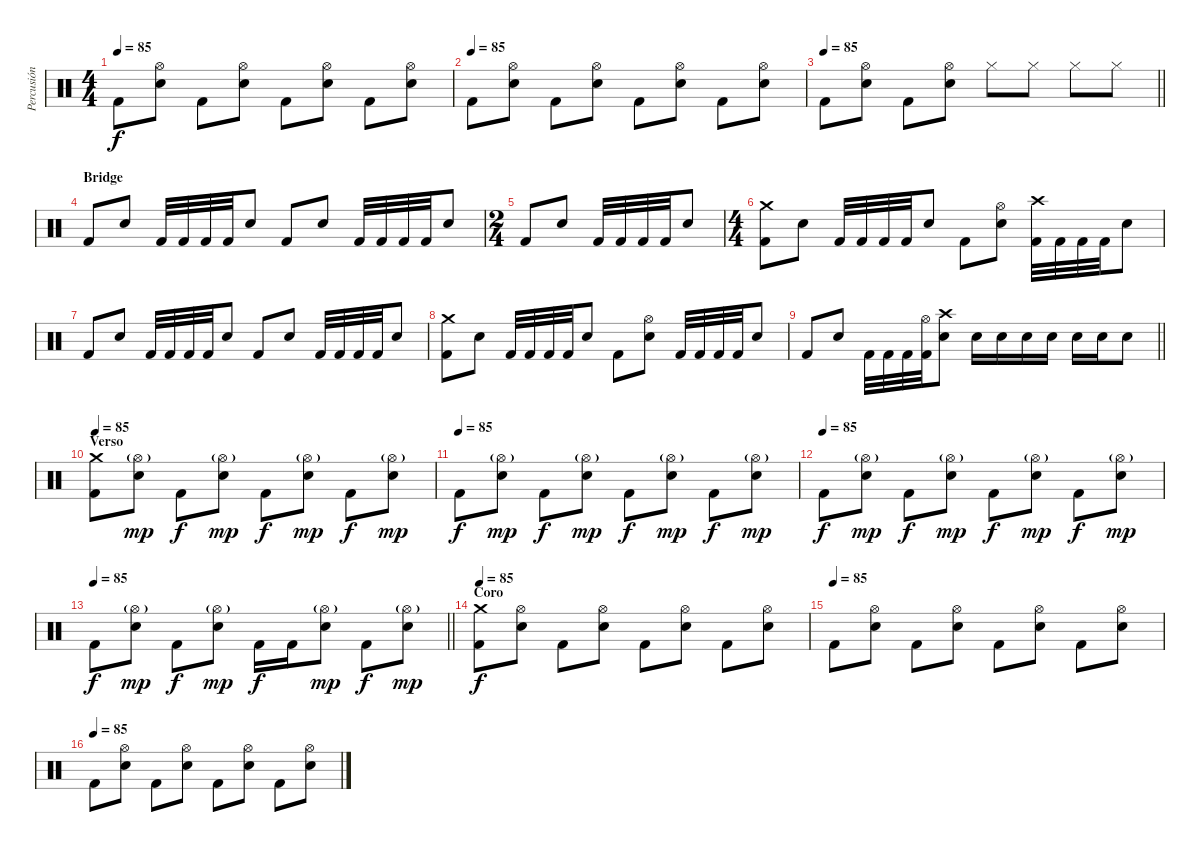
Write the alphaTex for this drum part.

\track ("Percusión" "Percusión") {instrument percussion}
\staff {score}
\articulation defaults
\ts (4 4)
\tempo 85
\clef neutral
\ks c "Kick (hit) 2".8{dy f}
("Hi-Hat (open)" "Electric Snare (hit)").8 "Kick (hit) 2".8 ("Hi-Hat (open)" "Electric Snare (hit)").8 "Kick (hit) 2".8 ("Hi-Hat (open)" "Electric Snare (hit)").8 "Kick (hit) 2".8 ("Hi-Hat (open)" "Electric Snare (hit)").8 |
\tempo (85)
"Kick (hit) 2".8 ("Hi-Hat (open)" "Electric Snare (hit)").8 "Kick (hit) 2".8 ("Hi-Hat (open)" "Electric Snare (hit)").8 "Kick (hit) 2".8 ("Hi-Hat (open)" "Electric Snare (hit)").8 "Kick (hit) 2".8 ("Hi-Hat (open)" "Electric Snare (hit)").8 |
\tempo 85
\barLineRight lightlight "Kick (hit) 2".8
("Hi-Hat (open)" "Electric Snare (hit)").8 "Kick (hit) 2".8 ("Hi-Hat (open)" "Electric Snare (hit)").8 "Hi-Hat (closed)".8 "Hi-Hat (closed)".8 "Hi-Hat (closed)".8 "Hi-Hat (closed)".8 |
\section ("" "Bridge")
"Kick (hit) 2".8 "Electric Snare (hit)".8 "Kick (hit) 2".32 "Kick (hit) 2".32 "Kick (hit) 2".32 "Kick (hit) 2".32 "Electric Snare (hit)".8 "Kick (hit) 2".8 "Electric Snare (hit)".8 "Kick (hit) 2".32 "Kick (hit) 2".32 "Kick (hit) 2".32 "Kick (hit) 2".32 "Electric Snare (hit)".8 |
\ts (2 4)
"Kick (hit) 2".8 "Electric Snare (hit)".8 "Kick (hit) 2".32 "Kick (hit) 2".32 "Kick (hit) 2".32 "Kick (hit) 2".32 "Electric Snare (hit)".8 |
\ts (4 4)
("Crash medium (hit)" "Kick (hit) 2").8 "Electric Snare (hit)".8 "Kick (hit) 2".32 "Kick (hit) 2".32 "Kick (hit) 2".32 "Kick (hit) 2".32 "Electric Snare (hit)".8 "Kick (hit) 2".8 ("Hi-Hat (open)" "Electric Snare (hit)").8 ("Crash high (hit)" "Kick (hit) 2").32 "Kick (hit) 2".32 "Kick (hit) 2".32 "Kick (hit) 2".32 "Electric Snare (hit)".8 |
"Kick (hit) 2".8 "Electric Snare (hit)".8 "Kick (hit) 2".32 "Kick (hit) 2".32 "Kick (hit) 2".32 "Kick (hit) 2".32 "Electric Snare (hit)".8 "Kick (hit) 2".8 "Electric Snare (hit)".8 "Kick (hit) 2".32 "Kick (hit) 2".32 "Kick (hit) 2".32 "Kick (hit) 2".32 "Electric Snare (hit)".8 |
("Crash medium (hit)" "Kick (hit) 2").8 "Electric Snare (hit)".8 "Kick (hit) 2".32 "Kick (hit) 2".32 "Kick (hit) 2".32 "Kick (hit) 2".32 "Electric Snare (hit)".8 "Kick (hit) 2".8 ("Hi-Hat (open)" "Electric Snare (hit)").8 "Kick (hit) 2".32 "Kick (hit) 2".32 "Kick (hit) 2".32 "Kick (hit) 2".32 "Electric Snare (hit)".8 |
\barLineRight lightlight "Kick (hit) 2".8 "Electric Snare (hit)".8 "Kick (hit) 2".32 "Kick (hit) 2".32 "Kick (hit) 2".32
("Hi-Hat (open)" "Kick (hit) 2").32 ("Crash high (hit)" "Electric Snare (hit)").8 "Electric Snare (hit)".16 "Electric Snare (hit)".16 "Electric Snare (hit)".16 "Electric Snare (hit)".16 "Electric Snare (hit)".16 "Electric Snare (hit)".16 "Electric Snare (hit)".8 |
\section ("" "Verso")
\tempo 85
("Crash medium (hit)" "Kick (hit) 2").8 ("Hi-Hat (open)"{g} "Electric Snare (hit)").8{dy mp} "Kick (hit) 2".8{dy f} ("Hi-Hat (open)"{g} "Electric Snare (hit)").8{dy mp} "Kick (hit) 2".8{dy f} ("Hi-Hat (open)"{g} "Electric Snare (hit)").8{dy mp} "Kick (hit) 2".8{dy f} ("Hi-Hat (open)"{g} "Electric Snare (hit)").8{dy mp} |
\tempo (85)
"Kick (hit) 2".8{dy f} ("Hi-Hat (open)"{g} "Electric Snare (hit)").8{dy mp} "Kick (hit) 2".8{dy f} ("Hi-Hat (open)"{g} "Electric Snare (hit)").8{dy mp} "Kick (hit) 2".8{dy f} ("Hi-Hat (open)"{g} "Electric Snare (hit)").8{dy mp} "Kick (hit) 2".8{dy f} ("Hi-Hat (open)"{g} "Electric Snare (hit)").8{dy mp} |
\tempo (85)
"Kick (hit) 2".8{dy f} ("Hi-Hat (open)"{g} "Electric Snare (hit)").8{dy mp} "Kick (hit) 2".8{dy f} ("Hi-Hat (open)"{g} "Electric Snare (hit)").8{dy mp} "Kick (hit) 2".8{dy f} ("Hi-Hat (open)"{g} "Electric Snare (hit)").8{dy mp} "Kick (hit) 2".8{dy f} ("Hi-Hat (open)"{g} "Electric Snare (hit)").8{dy mp} |
\tempo 90
\tempo 85
\barLineRight lightlight "Kick (hit) 2".8{dy f}
("Hi-Hat (open)"{g} "Electric Snare (hit)").8{dy mp} "Kick (hit) 2".8{dy f} ("Hi-Hat (open)"{g} "Electric Snare (hit)").8{dy mp} "Kick (hit) 2".16{dy f} "Kick (hit) 2".16 ("Hi-Hat (open)"{g} "Electric Snare (hit)").8{dy mp} "Kick (hit) 2".8{dy f} ("Hi-Hat (open)"{g} "Electric Snare (hit)").8{dy mp} |
\section ("" "Coro")
\tempo 85
("Crash medium (hit)" "Kick (hit) 2").8{dy f} ("Hi-Hat (open)" "Electric Snare (hit)").8 "Kick (hit) 2".8 ("Hi-Hat (open)" "Electric Snare (hit)").8 "Kick (hit) 2".8 ("Hi-Hat (open)" "Electric Snare (hit)").8 "Kick (hit) 2".8 ("Hi-Hat (open)" "Electric Snare (hit)").8 |
\tempo (85)
"Kick (hit) 2".8 ("Hi-Hat (open)" "Electric Snare (hit)").8 "Kick (hit) 2".8 ("Hi-Hat (open)" "Electric Snare (hit)").8 "Kick (hit) 2".8 ("Hi-Hat (open)" "Electric Snare (hit)").8 "Kick (hit) 2".8 ("Hi-Hat (open)" "Electric Snare (hit)").8 |
\tempo (85)
"Kick (hit) 2".8 ("Hi-Hat (open)" "Electric Snare (hit)").8 "Kick (hit) 2".8 ("Hi-Hat (open)" "Electric Snare (hit)").8 "Kick (hit) 2".8 ("Hi-Hat (open)" "Electric Snare (hit)").8 "Kick (hit) 2".8 ("Hi-Hat (open)" "Electric Snare (hit)").8
